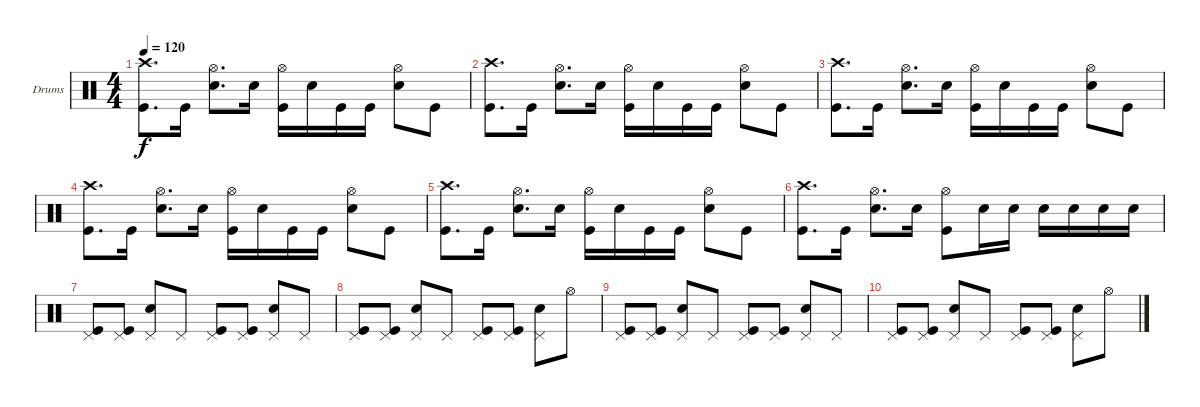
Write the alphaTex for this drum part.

\bracketExtendMode groupsimilarinstruments
\firstSystemTrackNameOrientation horizontal
\otherSystemsTrackNameOrientation horizontal
\track ("Drumkit" "Drums") {instrument percussion}
\staff {score}
\articulation defaults
\ts (4 4)
\tempo 120
\clef neutral
\ks c
("Crash high (hit)" "Kick (hit)").8{d dy f} "Kick (hit)".16 ("Hi-Hat (open)" "Snare (hit) 2").8{d} "Snare (hit) 2".16 ("Hi-Hat (open)" "Kick (hit)").16 "Snare (hit) 2".16 "Kick (hit)".16 "Kick (hit)".16 ("Hi-Hat (open)" "Snare (hit) 2").8 "Kick (hit)".8 |
("Crash high (hit)" "Kick (hit)").8{d} "Kick (hit)".16 ("Hi-Hat (open)" "Snare (hit) 2").8{d} "Snare (hit) 2".16 ("Hi-Hat (open)" "Kick (hit)").16 "Snare (hit) 2".16 "Kick (hit)".16 "Kick (hit)".16 ("Hi-Hat (open)" "Snare (hit) 2").8 "Kick (hit)".8 |
("Crash high (hit)" "Kick (hit)").8{d} "Kick (hit)".16 ("Hi-Hat (open)" "Snare (hit) 2").8{d} "Snare (hit) 2".16 ("Hi-Hat (open)" "Kick (hit)").16 "Snare (hit) 2".16 "Kick (hit)".16 "Kick (hit)".16 ("Hi-Hat (open)" "Snare (hit) 2").8 "Kick (hit)".8 |
("Crash high (hit)" "Kick (hit)").8{d} "Kick (hit)".16 ("Hi-Hat (open)" "Snare (hit) 2").8{d} "Snare (hit) 2".16 ("Hi-Hat (open)" "Kick (hit)").16 "Snare (hit) 2".16 "Kick (hit)".16 "Kick (hit)".16 ("Hi-Hat (open)" "Snare (hit) 2").8 "Kick (hit)".8 |
("Crash high (hit)" "Kick (hit)").8{d} "Kick (hit)".16 ("Hi-Hat (open)" "Snare (hit) 2").8{d} "Snare (hit) 2".16 ("Hi-Hat (open)" "Kick (hit)").16 "Snare (hit) 2".16 "Kick (hit)".16 "Kick (hit)".16 ("Hi-Hat (open)" "Snare (hit) 2").8 "Kick (hit)".8 |
("Crash high (hit)" "Kick (hit)").8{d} "Kick (hit)".16 ("Hi-Hat (open)" "Snare (hit) 2").8{d} "Snare (hit) 2".16 ("Hi-Hat (open)" "Kick (hit)").8 "Snare (hit) 2".16 "Snare (hit) 2".16 "Snare (hit) 2".16 "Snare (hit) 2".16 "Snare (hit) 2".16 "Snare (hit) 2".16 |
("Pedal Hi-Hat (hit)" "Kick (hit)").8 ("Pedal Hi-Hat (hit)" "Kick (hit)").8 ("Pedal Hi-Hat (hit)" "Snare (hit) 2").8 "Pedal Hi-Hat (hit)".8 ("Pedal Hi-Hat (hit)" "Kick (hit)").8 ("Pedal Hi-Hat (hit)" "Kick (hit)").8 ("Pedal Hi-Hat (hit)" "Snare (hit) 2").8 "Pedal Hi-Hat (hit)".8 |
("Pedal Hi-Hat (hit)" "Kick (hit)").8 ("Pedal Hi-Hat (hit)" "Kick (hit)").8 ("Pedal Hi-Hat (hit)" "Snare (hit) 2").8 "Pedal Hi-Hat (hit)".8 ("Pedal Hi-Hat (hit)" "Kick (hit)").8 ("Pedal Hi-Hat (hit)" "Kick (hit)").8 ("Pedal Hi-Hat (hit)" "Snare (hit) 2").8 "Hi-Hat (open)".8 |
("Pedal Hi-Hat (hit)" "Kick (hit)").8 ("Pedal Hi-Hat (hit)" "Kick (hit)").8 ("Pedal Hi-Hat (hit)" "Snare (hit) 2").8 "Pedal Hi-Hat (hit)".8 ("Pedal Hi-Hat (hit)" "Kick (hit)").8 ("Pedal Hi-Hat (hit)" "Kick (hit)").8 ("Pedal Hi-Hat (hit)" "Snare (hit) 2").8 "Pedal Hi-Hat (hit)".8 |
("Pedal Hi-Hat (hit)" "Kick (hit)").8 ("Pedal Hi-Hat (hit)" "Kick (hit)").8 ("Pedal Hi-Hat (hit)" "Snare (hit) 2").8 "Pedal Hi-Hat (hit)".8 ("Pedal Hi-Hat (hit)" "Kick (hit)").8 ("Pedal Hi-Hat (hit)" "Kick (hit)").8 ("Pedal Hi-Hat (hit)" "Snare (hit) 2").8 "Hi-Hat (open)".8
